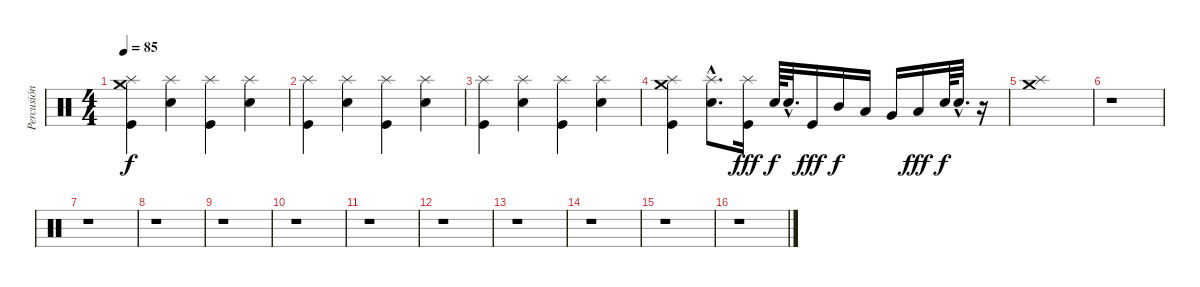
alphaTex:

\track ("Percusión" "Percusión") {instrument percussion}
\staff {score}
\articulation defaults
\ts (4 4)
\tempo 85
\clef neutral
\ks c
("Crash medium (hit)" "Kick (hit)" "Splash (hit)").4{dy f} ("Splash (hit)" "Electric Snare (hit)").4 ("Splash (hit)" "Kick (hit)").4 ("Splash (hit)" "Electric Snare (hit)").4 |
("Splash (hit)" "Kick (hit)").4 ("Splash (hit)" "Electric Snare (hit)").4 ("Splash (hit)" "Kick (hit)").4 ("Splash (hit)" "Electric Snare (hit)").4 |
("Splash (hit)" "Kick (hit)").4 ("Splash (hit)" "Electric Snare (hit)").4 ("Splash (hit)" "Kick (hit)").4 ("Splash (hit)" "Electric Snare (hit)").4 |
("Splash (hit)" "Kick (hit)" "Crash medium (hit)").4 ("Splash (hit)"{hac} "Electric Snare (hit)"{hac}).8{d} ("Splash (hit)" "Kick (hit)").16{dy fff} "Snare (hit) 2".64{dy f} "Snare (hit) 2"{hac}.32{d} "Kick (hit)".16{dy fff} "Mid Tom (hit)".16{dy f} "Low Tom (hit)".16 "Very Low Tom (hit)".16 "Low Floor Tom (hit)".16{dy fff} "Snare (hit) 2".64{dy f} "Snare (hit) 2"{hac}.32{d} r.16 |
("Splash (hit)" "Crash medium (hit)").1 |
r.1 |
r.1 |
r.1 |
r.1 |
r.1 |
r.1 |
r.1 |
r.1 |
r.1 |
r.1 |
r.1
